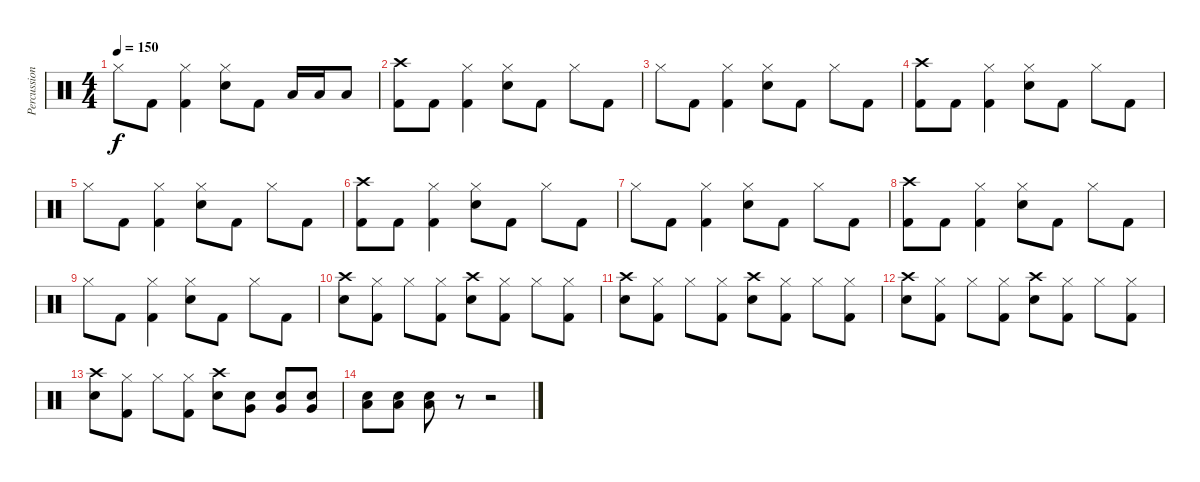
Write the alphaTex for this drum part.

\track ("Percussion" "Percussion") {instrument percussion}
\staff {score}
\articulation defaults
\ts (4 4)
\tempo 150
\clef neutral
\ks c "Hi-Hat (closed)".8{dy f} "Kick (hit) 2".8
("Hi-Hat (closed)" "Kick (hit) 2").4 ("Hi-Hat (closed)" "Electric Snare (hit)").8 "Kick (hit) 2".8 "Low Tom (hit)".16 "Low Tom (hit)".16 "Low Tom (hit)".8 |
("Crash high (hit)" "Kick (hit) 2").8 "Kick (hit) 2".8 ("Hi-Hat (closed)" "Kick (hit) 2").4 ("Hi-Hat (closed)" "Electric Snare (hit)").8 "Kick (hit) 2".8 "Hi-Hat (closed)".8 "Kick (hit) 2".8 |
"Hi-Hat (closed)".8 "Kick (hit) 2".8 ("Hi-Hat (closed)" "Kick (hit) 2").4 ("Hi-Hat (closed)" "Electric Snare (hit)").8 "Kick (hit) 2".8 "Hi-Hat (closed)".8 "Kick (hit) 2".8 |
("Crash high (hit)" "Kick (hit) 2").8 "Kick (hit) 2".8 ("Hi-Hat (closed)" "Kick (hit) 2").4 ("Hi-Hat (closed)" "Electric Snare (hit)").8 "Kick (hit) 2".8 "Hi-Hat (closed)".8 "Kick (hit) 2".8 |
"Hi-Hat (closed)".8 "Kick (hit) 2".8 ("Hi-Hat (closed)" "Kick (hit) 2").4 ("Hi-Hat (closed)" "Electric Snare (hit)").8 "Kick (hit) 2".8 "Hi-Hat (closed)".8 "Kick (hit) 2".8 |
("Crash high (hit)" "Kick (hit) 2").8 "Kick (hit) 2".8 ("Hi-Hat (closed)" "Kick (hit) 2").4 ("Hi-Hat (closed)" "Electric Snare (hit)").8 "Kick (hit) 2".8 "Hi-Hat (closed)".8 "Kick (hit) 2".8 |
"Hi-Hat (closed)".8 "Kick (hit) 2".8 ("Hi-Hat (closed)" "Kick (hit) 2").4 ("Hi-Hat (closed)" "Electric Snare (hit)").8 "Kick (hit) 2".8 "Hi-Hat (closed)".8 "Kick (hit) 2".8 |
("Crash high (hit)" "Kick (hit) 2").8 "Kick (hit) 2".8 ("Hi-Hat (closed)" "Kick (hit) 2").4 ("Hi-Hat (closed)" "Electric Snare (hit)").8 "Kick (hit) 2".8 "Hi-Hat (closed)".8 "Kick (hit) 2".8 |
"Hi-Hat (closed)".8 "Kick (hit) 2".8 ("Hi-Hat (closed)" "Kick (hit) 2").4 ("Hi-Hat (closed)" "Electric Snare (hit)").8 "Kick (hit) 2".8 "Hi-Hat (closed)".8 "Kick (hit) 2".8 |
("Crash high (hit)" "Electric Snare (hit)").8 ("Hi-Hat (closed)" "Kick (hit) 2").8 "Hi-Hat (closed)".8 ("Hi-Hat (closed)" "Kick (hit) 2").8 ("Crash high (hit)" "Electric Snare (hit)").8 ("Hi-Hat (closed)" "Kick (hit) 2").8 "Hi-Hat (closed)".8 ("Hi-Hat (closed)" "Kick (hit) 2").8 |
("Crash high (hit)" "Electric Snare (hit)").8 ("Hi-Hat (closed)" "Kick (hit) 2").8 "Hi-Hat (closed)".8 ("Hi-Hat (closed)" "Kick (hit) 2").8 ("Crash high (hit)" "Electric Snare (hit)").8 ("Hi-Hat (closed)" "Kick (hit) 2").8 "Hi-Hat (closed)".8 ("Hi-Hat (closed)" "Kick (hit) 2").8 |
("Crash high (hit)" "Electric Snare (hit)").8 ("Hi-Hat (closed)" "Kick (hit) 2").8 "Hi-Hat (closed)".8 ("Hi-Hat (closed)" "Kick (hit) 2").8 ("Crash high (hit)" "Electric Snare (hit)").8 ("Hi-Hat (closed)" "Kick (hit) 2").8 "Hi-Hat (closed)".8 ("Hi-Hat (closed)" "Kick (hit) 2").8 |
("Crash high (hit)" "Electric Snare (hit)").8 ("Hi-Hat (closed)" "Kick (hit) 2").8 "Hi-Hat (closed)".8 ("Hi-Hat (closed)" "Kick (hit) 2").8 ("Crash high (hit)" "Electric Snare (hit)").8 ("Very Low Tom (hit)" "Electric Snare (hit)").8 ("Very Low Tom (hit)" "Electric Snare (hit)").8 ("Very Low Tom (hit)" "Electric Snare (hit)").8 |
("Low Tom (hit)" "Electric Snare (hit)").8 ("Low Tom (hit)" "Electric Snare (hit)").8 ("Low Tom (hit)" "Electric Snare (hit)").8 r.8 r.2
